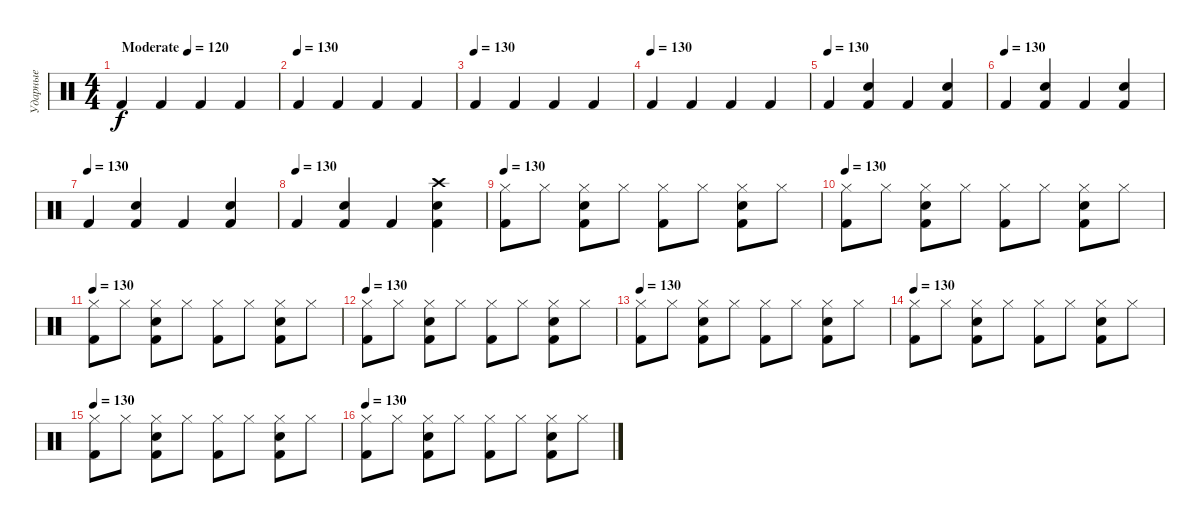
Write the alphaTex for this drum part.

\track ("Ударные" "Ударные") {instrument percussion}
\staff {score}
\articulation defaults
\ts (4 4)
\tempo (120 "Moderate")
\tempo 130
\tempo (120 "Moderate")
\clef neutral
\ks c "Kick (hit) 2".4{dy f} "Kick (hit) 2".4 "Kick (hit) 2".4 "Kick (hit) 2".4
|
\tempo (130)
"Kick (hit) 2".4 "Kick (hit) 2".4 "Kick (hit) 2".4 "Kick (hit) 2".4 |
\tempo (130)
"Kick (hit) 2".4 "Kick (hit) 2".4 "Kick (hit) 2".4 "Kick (hit) 2".4 |
\tempo (130)
"Kick (hit) 2".4 "Kick (hit) 2".4 "Kick (hit) 2".4 "Kick (hit) 2".4 |
\tempo (130)
"Kick (hit) 2".4 ("Snare (hit) 2" "Kick (hit) 2").4 "Kick (hit) 2".4 ("Snare (hit) 2" "Kick (hit) 2").4 |
\tempo (130)
"Kick (hit) 2".4 ("Snare (hit) 2" "Kick (hit) 2").4 "Kick (hit) 2".4 ("Snare (hit) 2" "Kick (hit) 2").4 |
\tempo (130)
"Kick (hit) 2".4 ("Snare (hit) 2" "Kick (hit) 2").4 "Kick (hit) 2".4 ("Snare (hit) 2" "Kick (hit) 2").4 |
\tempo (130)
"Kick (hit) 2".4 ("Snare (hit) 2" "Kick (hit) 2").4 "Kick (hit) 2".4 ("Crash high (hit)" "Snare (hit) 2" "Kick (hit) 2").4 |
\tempo 130
("Hi-Hat (closed)" "Kick (hit) 2").8 "Hi-Hat (closed)".8 ("Hi-Hat (closed)" "Snare (hit) 2" "Kick (hit) 2").8 "Hi-Hat (closed)".8 ("Hi-Hat (closed)" "Kick (hit) 2").8 "Hi-Hat (closed)".8 ("Hi-Hat (closed)" "Snare (hit) 2" "Kick (hit) 2").8 "Hi-Hat (closed)".8 |
\tempo 130
("Hi-Hat (closed)" "Kick (hit) 2").8 "Hi-Hat (closed)".8 ("Hi-Hat (closed)" "Snare (hit) 2" "Kick (hit) 2").8 "Hi-Hat (closed)".8 ("Hi-Hat (closed)" "Kick (hit) 2").8 "Hi-Hat (closed)".8 ("Hi-Hat (closed)" "Snare (hit) 2" "Kick (hit) 2").8 "Hi-Hat (closed)".8 |
\tempo 130
("Hi-Hat (closed)" "Kick (hit) 2").8 "Hi-Hat (closed)".8 ("Hi-Hat (closed)" "Snare (hit) 2" "Kick (hit) 2").8 "Hi-Hat (closed)".8 ("Hi-Hat (closed)" "Kick (hit) 2").8 "Hi-Hat (closed)".8 ("Hi-Hat (closed)" "Snare (hit) 2" "Kick (hit) 2").8 "Hi-Hat (closed)".8 |
\tempo 130
("Hi-Hat (closed)" "Kick (hit) 2").8 "Hi-Hat (closed)".8 ("Hi-Hat (closed)" "Snare (hit) 2" "Kick (hit) 2").8 "Hi-Hat (closed)".8 ("Hi-Hat (closed)" "Kick (hit) 2").8 "Hi-Hat (closed)".8 ("Hi-Hat (closed)" "Snare (hit) 2" "Kick (hit) 2").8 "Hi-Hat (closed)".8 |
\tempo 130
("Hi-Hat (closed)" "Kick (hit) 2").8 "Hi-Hat (closed)".8 ("Hi-Hat (closed)" "Snare (hit) 2" "Kick (hit) 2").8 "Hi-Hat (closed)".8 ("Hi-Hat (closed)" "Kick (hit) 2").8 "Hi-Hat (closed)".8 ("Hi-Hat (closed)" "Snare (hit) 2" "Kick (hit) 2").8 "Hi-Hat (closed)".8 |
\tempo 130
("Hi-Hat (closed)" "Kick (hit) 2").8 "Hi-Hat (closed)".8 ("Hi-Hat (closed)" "Snare (hit) 2" "Kick (hit) 2").8 "Hi-Hat (closed)".8 ("Hi-Hat (closed)" "Kick (hit) 2").8 "Hi-Hat (closed)".8 ("Hi-Hat (closed)" "Snare (hit) 2" "Kick (hit) 2").8 "Hi-Hat (closed)".8 |
\tempo 130
("Hi-Hat (closed)" "Kick (hit) 2").8 "Hi-Hat (closed)".8 ("Hi-Hat (closed)" "Snare (hit) 2" "Kick (hit) 2").8 "Hi-Hat (closed)".8 ("Hi-Hat (closed)" "Kick (hit) 2").8 "Hi-Hat (closed)".8 ("Hi-Hat (closed)" "Snare (hit) 2" "Kick (hit) 2").8 "Hi-Hat (closed)".8 |
\tempo 130
("Hi-Hat (closed)" "Kick (hit) 2").8 "Hi-Hat (closed)".8 ("Hi-Hat (closed)" "Snare (hit) 2" "Kick (hit) 2").8 "Hi-Hat (closed)".8 ("Hi-Hat (closed)" "Kick (hit) 2").8 "Hi-Hat (closed)".8 ("Hi-Hat (closed)" "Snare (hit) 2" "Kick (hit) 2").8 "Hi-Hat (closed)".8
